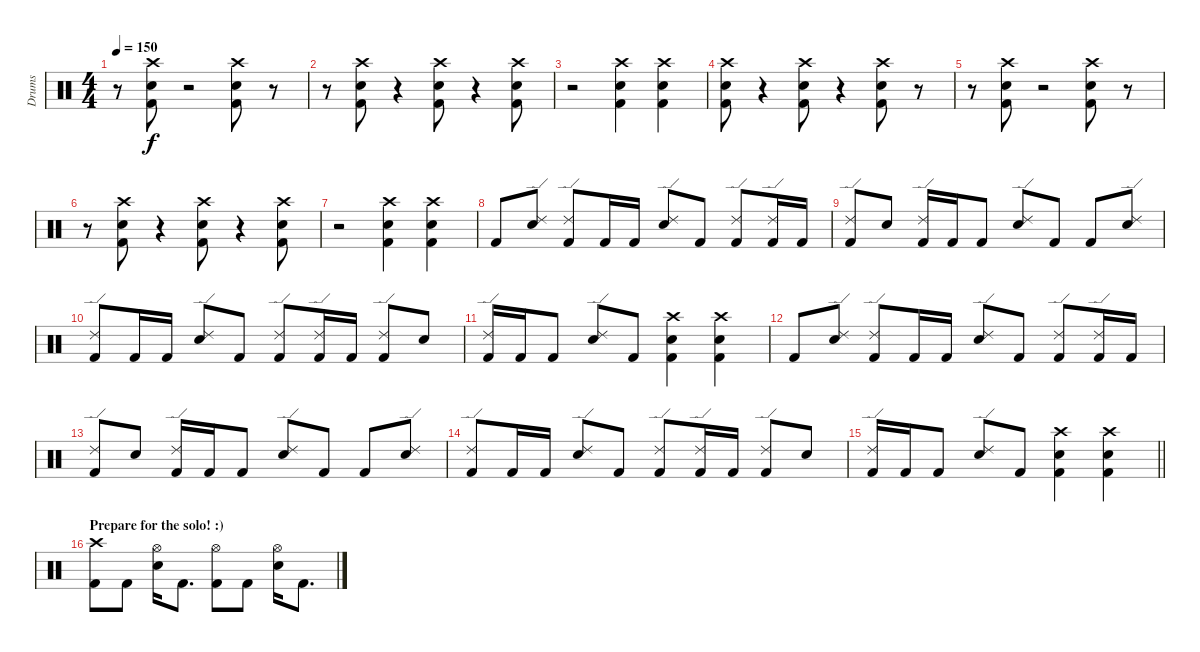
\track ("Drums" "Drums") {instrument percussion}
\staff {score}
\articulation defaults
\ts (4 4)
\tempo 150
\clef neutral
\ks c
r.8{dy f} ("Crash high (hit)" "Snare (hit) 2" "Kick (hit) 2").8 r.2 ("Crash high (hit)" "Snare (hit) 2" "Kick (hit) 2").8 r.8 |
r.8 ("Crash high (hit)" "Snare (hit) 2" "Kick (hit) 2").8 r.4 ("Crash high (hit)" "Snare (hit) 2" "Kick (hit) 2").8 r.4 ("Crash high (hit)" "Snare (hit) 2" "Kick (hit) 2").8 |
r.2 ("Crash high (hit)" "Snare (hit) 2" "Kick (hit) 2").4 ("Crash high (hit)" "Snare (hit) 2" "Kick (hit) 2").4 |
("Crash high (hit)" "Snare (hit) 2" "Kick (hit) 2").8 r.4 ("Crash high (hit)" "Snare (hit) 2" "Kick (hit) 2").8 r.4 ("Crash high (hit)" "Snare (hit) 2" "Kick (hit) 2").8 r.8 |
r.8 ("Crash high (hit)" "Snare (hit) 2" "Kick (hit) 2").8 r.2 ("Crash high (hit)" "Snare (hit) 2" "Kick (hit) 2").8 r.8 |
r.8 ("Crash high (hit)" "Snare (hit) 2" "Kick (hit) 2").8 r.4 ("Crash high (hit)" "Snare (hit) 2" "Kick (hit) 2").8 r.4 ("Crash high (hit)" "Snare (hit) 2" "Kick (hit) 2").8 |
r.2 ("Crash high (hit)" "Snare (hit) 2" "Kick (hit) 2").4 ("Crash high (hit)" "Snare (hit) 2" "Kick (hit) 2").4 |
"Kick (hit) 2".8 ("Ride (edge) 2" "Snare (hit) 2").8 ("Ride (edge) 2" "Kick (hit) 2").8 "Kick (hit) 2".16 "Kick (hit) 2".16 ("Ride (edge) 2" "Snare (hit) 2").8 "Kick (hit) 2".8 ("Ride (edge) 2" "Kick (hit) 2").8 ("Ride (edge) 2" "Kick (hit) 2").16 "Kick (hit) 2".16 |
("Ride (edge) 2" "Kick (hit) 2").8 "Snare (hit) 2".8 ("Ride (edge) 2" "Kick (hit) 2").16 "Kick (hit) 2".16 "Kick (hit) 2".8 ("Ride (edge) 2" "Snare (hit) 2").8 "Kick (hit) 2".8 "Kick (hit) 2".8 ("Ride (edge) 2" "Snare (hit) 2").8 |
("Ride (edge) 2" "Kick (hit) 2").8 "Kick (hit) 2".16 "Kick (hit) 2".16 ("Ride (edge) 2" "Snare (hit) 2").8 "Kick (hit) 2".8 ("Ride (edge) 2" "Kick (hit) 2").8 ("Ride (edge) 2" "Kick (hit) 2").16 "Kick (hit) 2".16 ("Ride (edge) 2" "Kick (hit) 2").8 "Snare (hit) 2".8 |
("Ride (edge) 2" "Kick (hit) 2").16 "Kick (hit) 2".16 "Kick (hit) 2".8 ("Ride (edge) 2" "Snare (hit) 2").8 "Kick (hit) 2".8 ("Crash high (hit)" "Snare (hit) 2" "Kick (hit) 2").4 ("Crash high (hit)" "Snare (hit) 2" "Kick (hit) 2").4 |
"Kick (hit) 2".8 ("Ride (edge) 2" "Snare (hit) 2").8 ("Ride (edge) 2" "Kick (hit) 2").8 "Kick (hit) 2".16 "Kick (hit) 2".16 ("Ride (edge) 2" "Snare (hit) 2").8 "Kick (hit) 2".8 ("Ride (edge) 2" "Kick (hit) 2").8 ("Ride (edge) 2" "Kick (hit) 2").16 "Kick (hit) 2".16 |
("Ride (edge) 2" "Kick (hit) 2").8 "Snare (hit) 2".8 ("Ride (edge) 2" "Kick (hit) 2").16 "Kick (hit) 2".16 "Kick (hit) 2".8 ("Ride (edge) 2" "Snare (hit) 2").8 "Kick (hit) 2".8 "Kick (hit) 2".8 ("Ride (edge) 2" "Snare (hit) 2").8 |
("Ride (edge) 2" "Kick (hit) 2").8 "Kick (hit) 2".16 "Kick (hit) 2".16 ("Ride (edge) 2" "Snare (hit) 2").8 "Kick (hit) 2".8 ("Ride (edge) 2" "Kick (hit) 2").8 ("Ride (edge) 2" "Kick (hit) 2").16 "Kick (hit) 2".16 ("Ride (edge) 2" "Kick (hit) 2").8 "Snare (hit) 2".8 |
\barLineRight lightlight
("Ride (edge) 2" "Kick (hit) 2").16 "Kick (hit) 2".16 "Kick (hit) 2".8 ("Ride (edge) 2" "Snare (hit) 2").8 "Kick (hit) 2".8 ("Crash high (hit)" "Snare (hit) 2" "Kick (hit) 2").4 ("Crash high (hit)" "Snare (hit) 2" "Kick (hit) 2").4 |
\section ("" "Prepare for the solo! :)")
("Crash high (hit)" "Kick (hit) 2").8 "Kick (hit) 2".8 ("Hi-Hat (open)" "Snare (hit) 2").16 "Kick (hit) 2".8{d} ("Hi-Hat (open)" "Kick (hit) 2").8 "Kick (hit) 2".8 ("Hi-Hat (open)" "Snare (hit) 2").16 "Kick (hit) 2".8{d}
